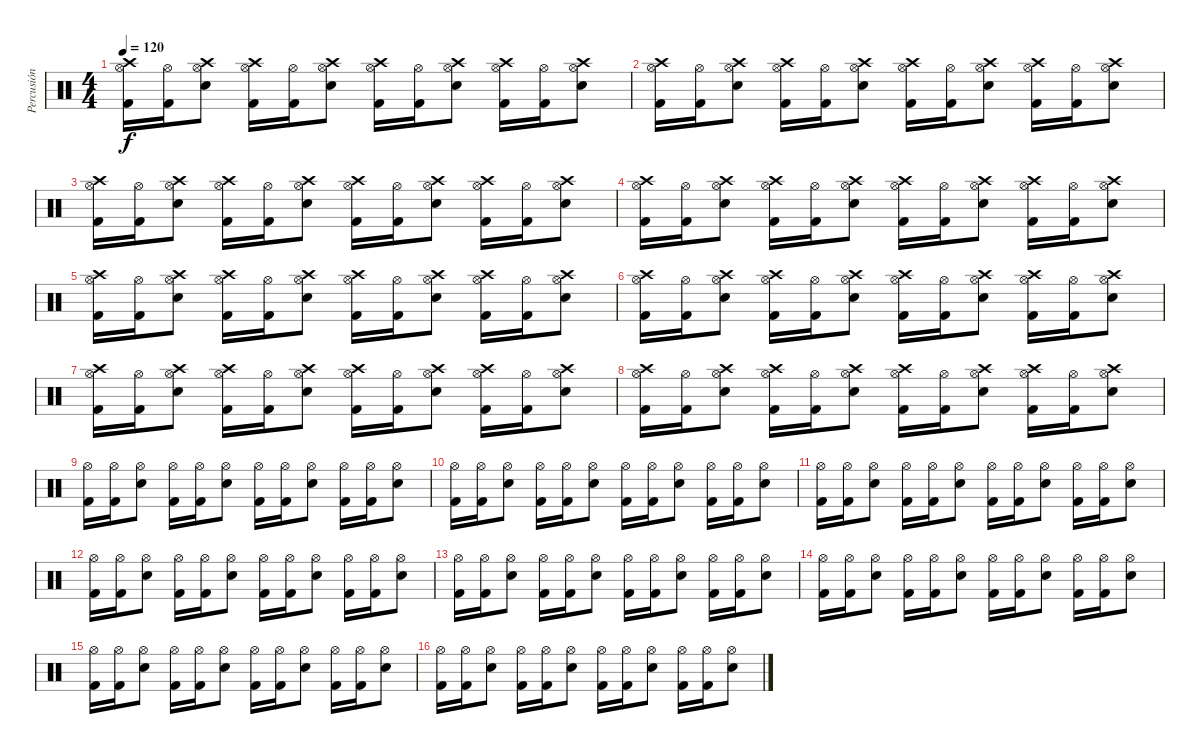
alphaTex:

\track ("Percusión" "Percusión") {instrument percussion}
\staff {score}
\articulation defaults
\ts (4 4)
\tempo 120
\clef neutral
\ks c
("Kick (hit) 2" "Hi-Hat (open)" "Crash high (hit)").16{dy f} ("Kick (hit) 2" "Hi-Hat (open)").16 ("Snare (hit) 2" "Hi-Hat (open)" "Crash high (hit)").8 ("Kick (hit) 2" "Hi-Hat (open)" "Crash high (hit)").16 ("Kick (hit) 2" "Hi-Hat (open)").16 ("Snare (hit) 2" "Hi-Hat (open)" "Crash high (hit)").8 ("Kick (hit) 2" "Hi-Hat (open)" "Crash high (hit)").16 ("Kick (hit) 2" "Hi-Hat (open)").16 ("Snare (hit) 2" "Hi-Hat (open)" "Crash high (hit)").8 ("Kick (hit) 2" "Hi-Hat (open)" "Crash high (hit)").16 ("Kick (hit) 2" "Hi-Hat (open)").16 ("Snare (hit) 2" "Hi-Hat (open)" "Crash high (hit)").8 |
("Kick (hit) 2" "Hi-Hat (open)" "Crash high (hit)").16 ("Kick (hit) 2" "Hi-Hat (open)").16 ("Snare (hit) 2" "Hi-Hat (open)" "Crash high (hit)").8 ("Kick (hit) 2" "Hi-Hat (open)" "Crash high (hit)").16 ("Kick (hit) 2" "Hi-Hat (open)").16 ("Snare (hit) 2" "Hi-Hat (open)" "Crash high (hit)").8 ("Kick (hit) 2" "Hi-Hat (open)" "Crash high (hit)").16 ("Kick (hit) 2" "Hi-Hat (open)").16 ("Snare (hit) 2" "Hi-Hat (open)" "Crash high (hit)").8 ("Kick (hit) 2" "Hi-Hat (open)" "Crash high (hit)").16 ("Kick (hit) 2" "Hi-Hat (open)").16 ("Snare (hit) 2" "Hi-Hat (open)" "Crash high (hit)").8 |
("Kick (hit) 2" "Hi-Hat (open)" "Crash high (hit)").16 ("Kick (hit) 2" "Hi-Hat (open)").16 ("Snare (hit) 2" "Hi-Hat (open)" "Crash high (hit)").8 ("Kick (hit) 2" "Hi-Hat (open)" "Crash high (hit)").16 ("Kick (hit) 2" "Hi-Hat (open)").16 ("Snare (hit) 2" "Hi-Hat (open)" "Crash high (hit)").8 ("Kick (hit) 2" "Hi-Hat (open)" "Crash high (hit)").16 ("Kick (hit) 2" "Hi-Hat (open)").16 ("Snare (hit) 2" "Hi-Hat (open)" "Crash high (hit)").8 ("Kick (hit) 2" "Hi-Hat (open)" "Crash high (hit)").16 ("Kick (hit) 2" "Hi-Hat (open)").16 ("Snare (hit) 2" "Hi-Hat (open)" "Crash high (hit)").8 |
("Kick (hit) 2" "Hi-Hat (open)" "Crash high (hit)").16 ("Kick (hit) 2" "Hi-Hat (open)").16 ("Snare (hit) 2" "Hi-Hat (open)" "Crash high (hit)").8 ("Kick (hit) 2" "Hi-Hat (open)" "Crash high (hit)").16 ("Kick (hit) 2" "Hi-Hat (open)").16 ("Snare (hit) 2" "Hi-Hat (open)" "Crash high (hit)").8 ("Kick (hit) 2" "Hi-Hat (open)" "Crash high (hit)").16 ("Kick (hit) 2" "Hi-Hat (open)").16 ("Snare (hit) 2" "Hi-Hat (open)" "Crash high (hit)").8 ("Kick (hit) 2" "Hi-Hat (open)" "Crash high (hit)").16 ("Kick (hit) 2" "Hi-Hat (open)").16 ("Snare (hit) 2" "Hi-Hat (open)" "Crash high (hit)").8 |
("Kick (hit) 2" "Hi-Hat (open)" "Crash high (hit)").16 ("Kick (hit) 2" "Hi-Hat (open)").16 ("Snare (hit) 2" "Hi-Hat (open)" "Crash high (hit)").8 ("Kick (hit) 2" "Hi-Hat (open)" "Crash high (hit)").16 ("Kick (hit) 2" "Hi-Hat (open)").16 ("Snare (hit) 2" "Hi-Hat (open)" "Crash high (hit)").8 ("Kick (hit) 2" "Hi-Hat (open)" "Crash high (hit)").16 ("Kick (hit) 2" "Hi-Hat (open)").16 ("Snare (hit) 2" "Hi-Hat (open)" "Crash high (hit)").8 ("Kick (hit) 2" "Hi-Hat (open)" "Crash high (hit)").16 ("Kick (hit) 2" "Hi-Hat (open)").16 ("Snare (hit) 2" "Hi-Hat (open)" "Crash high (hit)").8 |
("Kick (hit) 2" "Hi-Hat (open)" "Crash high (hit)").16 ("Kick (hit) 2" "Hi-Hat (open)").16 ("Snare (hit) 2" "Hi-Hat (open)" "Crash high (hit)").8 ("Kick (hit) 2" "Hi-Hat (open)" "Crash high (hit)").16 ("Kick (hit) 2" "Hi-Hat (open)").16 ("Snare (hit) 2" "Hi-Hat (open)" "Crash high (hit)").8 ("Kick (hit) 2" "Hi-Hat (open)" "Crash high (hit)").16 ("Kick (hit) 2" "Hi-Hat (open)").16 ("Snare (hit) 2" "Hi-Hat (open)" "Crash high (hit)").8 ("Kick (hit) 2" "Hi-Hat (open)" "Crash high (hit)").16 ("Kick (hit) 2" "Hi-Hat (open)").16 ("Snare (hit) 2" "Hi-Hat (open)" "Crash high (hit)").8 |
("Kick (hit) 2" "Hi-Hat (open)" "Crash high (hit)").16 ("Kick (hit) 2" "Hi-Hat (open)").16 ("Snare (hit) 2" "Hi-Hat (open)" "Crash high (hit)").8 ("Kick (hit) 2" "Hi-Hat (open)" "Crash high (hit)").16 ("Kick (hit) 2" "Hi-Hat (open)").16 ("Snare (hit) 2" "Hi-Hat (open)" "Crash high (hit)").8 ("Kick (hit) 2" "Hi-Hat (open)" "Crash high (hit)").16 ("Kick (hit) 2" "Hi-Hat (open)").16 ("Snare (hit) 2" "Hi-Hat (open)" "Crash high (hit)").8 ("Kick (hit) 2" "Hi-Hat (open)" "Crash high (hit)").16 ("Kick (hit) 2" "Hi-Hat (open)").16 ("Snare (hit) 2" "Hi-Hat (open)" "Crash high (hit)").8 |
("Kick (hit) 2" "Hi-Hat (open)" "Crash high (hit)").16 ("Kick (hit) 2" "Hi-Hat (open)").16 ("Snare (hit) 2" "Hi-Hat (open)" "Crash high (hit)").8 ("Kick (hit) 2" "Hi-Hat (open)" "Crash high (hit)").16 ("Kick (hit) 2" "Hi-Hat (open)").16 ("Snare (hit) 2" "Hi-Hat (open)" "Crash high (hit)").8 ("Kick (hit) 2" "Hi-Hat (open)" "Crash high (hit)").16 ("Kick (hit) 2" "Hi-Hat (open)").16 ("Snare (hit) 2" "Hi-Hat (open)" "Crash high (hit)").8 ("Kick (hit) 2" "Hi-Hat (open)" "Crash high (hit)").16 ("Kick (hit) 2" "Hi-Hat (open)").16 ("Snare (hit) 2" "Hi-Hat (open)" "Crash high (hit)").8 |
("Kick (hit) 2" "Hi-Hat (open)").16 ("Kick (hit) 2" "Hi-Hat (open)").16 ("Snare (hit) 2" "Hi-Hat (open)").8 ("Kick (hit) 2" "Hi-Hat (open)").16 ("Kick (hit) 2" "Hi-Hat (open)").16 ("Snare (hit) 2" "Hi-Hat (open)").8 ("Kick (hit) 2" "Hi-Hat (open)").16 ("Kick (hit) 2" "Hi-Hat (open)").16 ("Snare (hit) 2" "Hi-Hat (open)").8 ("Kick (hit) 2" "Hi-Hat (open)").16 ("Kick (hit) 2" "Hi-Hat (open)").16 ("Snare (hit) 2" "Hi-Hat (open)").8 |
("Kick (hit) 2" "Hi-Hat (open)").16 ("Kick (hit) 2" "Hi-Hat (open)").16 ("Snare (hit) 2" "Hi-Hat (open)").8 ("Kick (hit) 2" "Hi-Hat (open)").16 ("Kick (hit) 2" "Hi-Hat (open)").16 ("Snare (hit) 2" "Hi-Hat (open)").8 ("Kick (hit) 2" "Hi-Hat (open)").16 ("Kick (hit) 2" "Hi-Hat (open)").16 ("Snare (hit) 2" "Hi-Hat (open)").8 ("Kick (hit) 2" "Hi-Hat (open)").16 ("Kick (hit) 2" "Hi-Hat (open)").16 ("Snare (hit) 2" "Hi-Hat (open)").8 |
("Kick (hit) 2" "Hi-Hat (open)").16 ("Kick (hit) 2" "Hi-Hat (open)").16 ("Snare (hit) 2" "Hi-Hat (open)").8 ("Kick (hit) 2" "Hi-Hat (open)").16 ("Kick (hit) 2" "Hi-Hat (open)").16 ("Snare (hit) 2" "Hi-Hat (open)").8 ("Kick (hit) 2" "Hi-Hat (open)").16 ("Kick (hit) 2" "Hi-Hat (open)").16 ("Snare (hit) 2" "Hi-Hat (open)").8 ("Kick (hit) 2" "Hi-Hat (open)").16 ("Kick (hit) 2" "Hi-Hat (open)").16 ("Snare (hit) 2" "Hi-Hat (open)").8 |
("Kick (hit) 2" "Hi-Hat (open)").16 ("Kick (hit) 2" "Hi-Hat (open)").16 ("Snare (hit) 2" "Hi-Hat (open)").8 ("Kick (hit) 2" "Hi-Hat (open)").16 ("Kick (hit) 2" "Hi-Hat (open)").16 ("Snare (hit) 2" "Hi-Hat (open)").8 ("Kick (hit) 2" "Hi-Hat (open)").16 ("Kick (hit) 2" "Hi-Hat (open)").16 ("Snare (hit) 2" "Hi-Hat (open)").8 ("Kick (hit) 2" "Hi-Hat (open)").16 ("Kick (hit) 2" "Hi-Hat (open)").16 ("Snare (hit) 2" "Hi-Hat (open)").8 |
("Kick (hit) 2" "Hi-Hat (open)").16 ("Kick (hit) 2" "Hi-Hat (open)").16 ("Snare (hit) 2" "Hi-Hat (open)").8 ("Kick (hit) 2" "Hi-Hat (open)").16 ("Kick (hit) 2" "Hi-Hat (open)").16 ("Snare (hit) 2" "Hi-Hat (open)").8 ("Kick (hit) 2" "Hi-Hat (open)").16 ("Kick (hit) 2" "Hi-Hat (open)").16 ("Snare (hit) 2" "Hi-Hat (open)").8 ("Kick (hit) 2" "Hi-Hat (open)").16 ("Kick (hit) 2" "Hi-Hat (open)").16 ("Snare (hit) 2" "Hi-Hat (open)").8 |
("Kick (hit) 2" "Hi-Hat (open)").16 ("Kick (hit) 2" "Hi-Hat (open)").16 ("Snare (hit) 2" "Hi-Hat (open)").8 ("Kick (hit) 2" "Hi-Hat (open)").16 ("Kick (hit) 2" "Hi-Hat (open)").16 ("Snare (hit) 2" "Hi-Hat (open)").8 ("Kick (hit) 2" "Hi-Hat (open)").16 ("Kick (hit) 2" "Hi-Hat (open)").16 ("Snare (hit) 2" "Hi-Hat (open)").8 ("Kick (hit) 2" "Hi-Hat (open)").16 ("Kick (hit) 2" "Hi-Hat (open)").16 ("Snare (hit) 2" "Hi-Hat (open)").8 |
("Kick (hit) 2" "Hi-Hat (open)").16 ("Kick (hit) 2" "Hi-Hat (open)").16 ("Snare (hit) 2" "Hi-Hat (open)").8 ("Kick (hit) 2" "Hi-Hat (open)").16 ("Kick (hit) 2" "Hi-Hat (open)").16 ("Snare (hit) 2" "Hi-Hat (open)").8 ("Kick (hit) 2" "Hi-Hat (open)").16 ("Kick (hit) 2" "Hi-Hat (open)").16 ("Snare (hit) 2" "Hi-Hat (open)").8 ("Kick (hit) 2" "Hi-Hat (open)").16 ("Kick (hit) 2" "Hi-Hat (open)").16 ("Snare (hit) 2" "Hi-Hat (open)").8 |
("Kick (hit) 2" "Hi-Hat (open)").16 ("Kick (hit) 2" "Hi-Hat (open)").16 ("Snare (hit) 2" "Hi-Hat (open)").8 ("Kick (hit) 2" "Hi-Hat (open)").16 ("Kick (hit) 2" "Hi-Hat (open)").16 ("Snare (hit) 2" "Hi-Hat (open)").8 ("Kick (hit) 2" "Hi-Hat (open)").16 ("Kick (hit) 2" "Hi-Hat (open)").16 ("Snare (hit) 2" "Hi-Hat (open)").8 ("Kick (hit) 2" "Hi-Hat (open)").16 ("Kick (hit) 2" "Hi-Hat (open)").16 ("Snare (hit) 2" "Hi-Hat (open)").8
